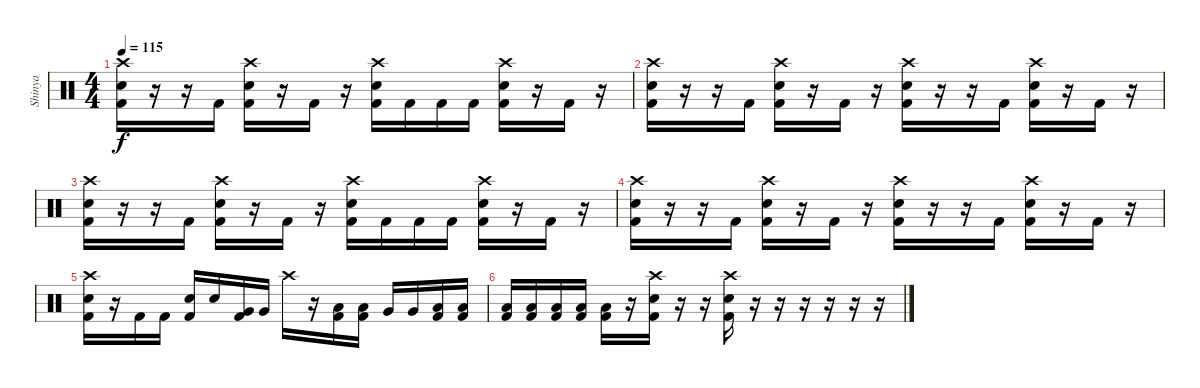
\track ("Shinya" "Shinya") {instrument percussion}
\staff {score}
\articulation defaults
\ts (4 4)
\tempo 115
\clef neutral
\ks c
("Crash high (hit)" "Electric Snare (hit)" "Kick (hit) 2").16{dy f} r.16 r.16 "Kick (hit) 2".16 ("Crash high (hit)" "Electric Snare (hit)" "Kick (hit) 2").16 r.16 "Kick (hit) 2".16 r.16 ("Crash high (hit)" "Electric Snare (hit)" "Kick (hit) 2").16 "Kick (hit) 2".16 "Kick (hit) 2".16 "Kick (hit) 2".16 ("Crash high (hit)" "Electric Snare (hit)" "Kick (hit) 2").16 r.16 "Kick (hit) 2".16 r.16 |
("Crash high (hit)" "Electric Snare (hit)" "Kick (hit) 2").16 r.16 r.16 "Kick (hit) 2".16 ("Crash high (hit)" "Electric Snare (hit)" "Kick (hit) 2").16 r.16 "Kick (hit) 2".16 r.16 ("Crash high (hit)" "Electric Snare (hit)" "Kick (hit) 2").16 r.16 r.16 "Kick (hit) 2".16 ("Crash high (hit)" "Electric Snare (hit)" "Kick (hit) 2").16 r.16 "Kick (hit) 2".16 r.16 |
("Crash high (hit)" "Electric Snare (hit)" "Kick (hit) 2").16 r.16 r.16 "Kick (hit) 2".16 ("Crash high (hit)" "Electric Snare (hit)" "Kick (hit) 2").16 r.16 "Kick (hit) 2".16 r.16 ("Crash high (hit)" "Electric Snare (hit)" "Kick (hit) 2").16 "Kick (hit) 2".16 "Kick (hit) 2".16 "Kick (hit) 2".16 ("Crash high (hit)" "Electric Snare (hit)" "Kick (hit) 2").16 r.16 "Kick (hit) 2".16 r.16 |
("Crash high (hit)" "Electric Snare (hit)" "Kick (hit) 2").16 r.16 r.16 "Kick (hit) 2".16 ("Crash high (hit)" "Electric Snare (hit)" "Kick (hit) 2").16 r.16 "Kick (hit) 2".16 r.16 ("Crash high (hit)" "Electric Snare (hit)" "Kick (hit) 2").16 r.16 r.16 "Kick (hit) 2".16 ("Crash high (hit)" "Electric Snare (hit)" "Kick (hit) 2").16 r.16 "Kick (hit) 2".16 r.16 |
("Crash high (hit)" "Electric Snare (hit)" "Kick (hit) 2").16 r.16 "Kick (hit) 2".16 "Kick (hit) 2".16 ("Electric Snare (hit)" "Kick (hit) 2").16 "Electric Snare (hit)".16 ("Very Low Tom (hit)" "Kick (hit) 2").16 "Very Low Tom (hit)".16 "Crash high (hit)".16 r.16 ("Low Tom (hit)" "Kick (hit) 2").16 ("Low Tom (hit)" "Kick (hit) 2").16 "Very Low Tom (hit)".16 "Very Low Tom (hit)".16 ("Low Floor Tom (hit)" "Kick (hit) 2").16 ("Low Floor Tom (hit)" "Kick (hit) 2").16 |
("Low Floor Tom (hit)" "Kick (hit) 2").16 ("Low Floor Tom (hit)" "Kick (hit) 2").16 ("Low Floor Tom (hit)" "Kick (hit) 2").16 ("Low Floor Tom (hit)" "Kick (hit) 2").16 ("Low Floor Tom (hit)" "Kick (hit) 2").16 r.16 ("Crash high (hit)" "Electric Snare (hit)" "Kick (hit) 2").16 r.16 r.16 ("Crash high (hit)" "Electric Snare (hit)" "Kick (hit) 2").16 r.16 r.16 r.16 r.16 r.16 r.16
